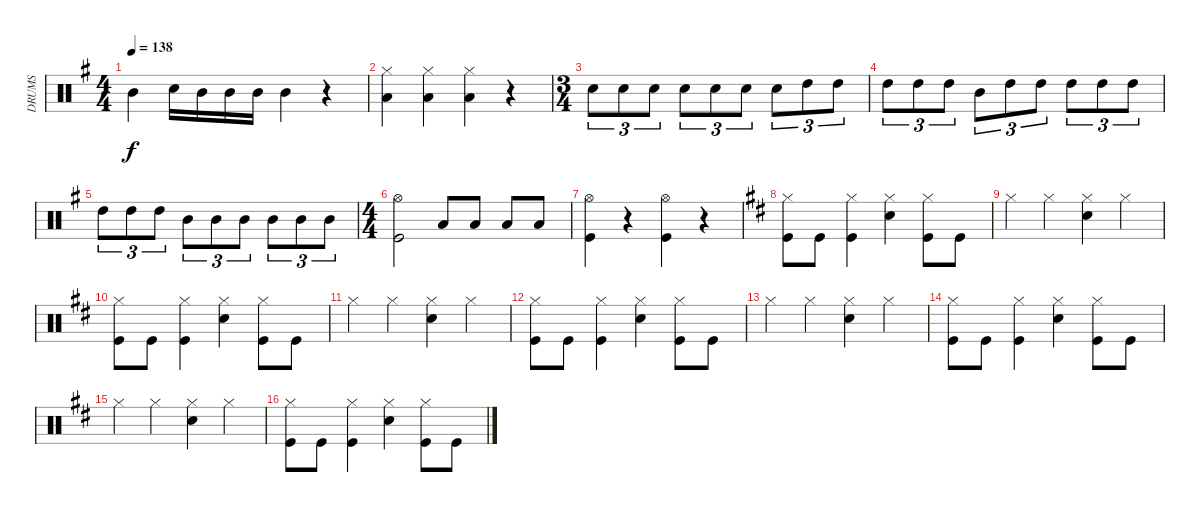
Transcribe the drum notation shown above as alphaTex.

\track ("DRUMS" "DRUMS") {instrument percussion}
\staff {score}
\articulation defaults
\ts (4 4)
\tempo 138
\clef neutral
\ks eminor "Mid Tom (hit)".4{dy f} "Snare (hit)".16 "Mid Tom (hit)".16 "Mid Tom (hit)".16 "Mid Tom (hit)".16 "Mid Tom (hit)".4
r.4 |
("Hi-Hat (closed)" "Low Tom (hit)").4 ("Hi-Hat (closed)" "Low Tom (hit)").4 ("Hi-Hat (closed)" "Low Tom (hit)").4 r.4 |
\ts (3 4)
"Snare (hit) 2".8{tu (3 2)} "Snare (hit) 2".8{tu (3 2)} "Snare (hit) 2".8{tu (3 2)} "Snare (hit) 2".8{tu (3 2)} "Snare (hit) 2".8{tu (3 2)} "Snare (hit) 2".8{tu (3 2)} "Snare (hit) 2".8{tu (3 2)} "High Tom (hit)".8{tu (3 2)} "High Tom (hit)".8{tu (3 2)} |
"High Tom (hit)".8{tu (3 2)} "High Tom (hit)".8{tu (3 2)} "High Tom (hit)".8{tu (3 2)} "Mid Tom (hit)".8{tu (3 2)} "High Tom (hit)".8{tu (3 2)} "High Tom (hit)".8{tu (3 2)} "High Tom (hit)".8{tu (3 2)} "High Tom (hit)".8{tu (3 2)} "High Tom (hit)".8{tu (3 2)} |
"High Tom (hit)".8{tu (3 2)} "High Tom (hit)".8{tu (3 2)} "High Tom (hit)".8{tu (3 2)} "Mid Tom (hit)".8{tu (3 2)} "Mid Tom (hit)".8{tu (3 2)} "Mid Tom (hit)".8{tu (3 2)} "Mid Tom (hit)".8{tu (3 2)} "Mid Tom (hit)".8{tu (3 2)} "Mid Tom (hit)".8{tu (3 2)} |
\ts (4 4)
("Hi-Hat (open)" "Kick (hit)").2 "Low Tom (hit)".8 "Low Tom (hit)".8 "Low Tom (hit)".8 "Low Tom (hit)".8 |
("Hi-Hat (open)" "Kick (hit)").4 r.4 ("Hi-Hat (open)" "Kick (hit)").4 r.4 |
\ks bminor
("Hi-Hat (closed)" "Kick (hit)").8 "Kick (hit)".8 ("Hi-Hat (closed)" "Kick (hit)").4 ("Hi-Hat (closed)" "Snare (hit) 2").4 ("Hi-Hat (closed)" "Kick (hit)").8 "Kick (hit)".8 |
"Hi-Hat (closed)".4 "Hi-Hat (closed)".4 ("Hi-Hat (closed)" "Snare (hit) 2").4 "Hi-Hat (closed)".4 |
("Hi-Hat (closed)" "Kick (hit)").8 "Kick (hit)".8 ("Hi-Hat (closed)" "Kick (hit)").4 ("Hi-Hat (closed)" "Snare (hit) 2").4 ("Hi-Hat (closed)" "Kick (hit)").8 "Kick (hit)".8 |
"Hi-Hat (closed)".4 "Hi-Hat (closed)".4 ("Hi-Hat (closed)" "Snare (hit) 2").4 "Hi-Hat (closed)".4 |
("Hi-Hat (closed)" "Kick (hit)").8 "Kick (hit)".8 ("Hi-Hat (closed)" "Kick (hit)").4 ("Hi-Hat (closed)" "Snare (hit) 2").4 ("Hi-Hat (closed)" "Kick (hit)").8 "Kick (hit)".8 |
"Hi-Hat (closed)".4 "Hi-Hat (closed)".4 ("Hi-Hat (closed)" "Snare (hit) 2").4 "Hi-Hat (closed)".4 |
("Hi-Hat (closed)" "Kick (hit)").8 "Kick (hit)".8 ("Hi-Hat (closed)" "Kick (hit)").4 ("Hi-Hat (closed)" "Snare (hit) 2").4 ("Hi-Hat (closed)" "Kick (hit)").8 "Kick (hit)".8 |
"Hi-Hat (closed)".4 "Hi-Hat (closed)".4 ("Hi-Hat (closed)" "Snare (hit) 2").4 "Hi-Hat (closed)".4 |
("Hi-Hat (closed)" "Kick (hit)").8 "Kick (hit)".8 ("Hi-Hat (closed)" "Kick (hit)").4 ("Hi-Hat (closed)" "Snare (hit) 2").4 ("Hi-Hat (closed)" "Kick (hit)").8 "Kick (hit)".8
